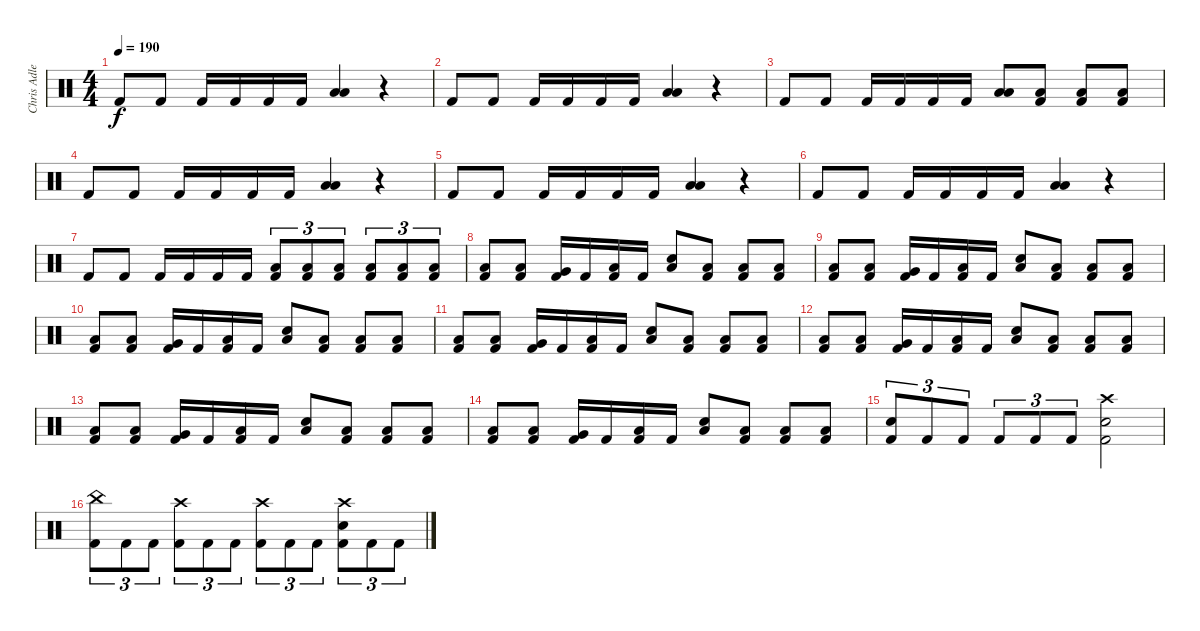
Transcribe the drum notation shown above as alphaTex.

\track ("Chris Adler" "Chris Adle") {instrument percussion}
\staff {score}
\articulation defaults
\ts (4 4)
\tempo 190
\clef neutral
\ks c "Kick (hit) 2".8{dy f} "Kick (hit) 2".8 "Kick (hit) 2".16 "Kick (hit) 2".16 "Kick (hit) 2".16 "Kick (hit) 2".16
("Low Tom (hit)" "Low Floor Tom (hit)").4 r.4 |
"Kick (hit) 2".8 "Kick (hit) 2".8 "Kick (hit) 2".16 "Kick (hit) 2".16 "Kick (hit) 2".16 "Kick (hit) 2".16 ("Low Tom (hit)" "Low Floor Tom (hit)").4 r.4 |
"Kick (hit) 2".8 "Kick (hit) 2".8 "Kick (hit) 2".16 "Kick (hit) 2".16 "Kick (hit) 2".16 "Kick (hit) 2".16 ("Low Tom (hit)" "Low Floor Tom (hit)").8 ("Low Floor Tom (hit)" "Kick (hit) 2").8 ("Low Floor Tom (hit)" "Kick (hit) 2").8 ("Low Floor Tom (hit)" "Kick (hit) 2").8 |
"Kick (hit) 2".8 "Kick (hit) 2".8 "Kick (hit) 2".16 "Kick (hit) 2".16 "Kick (hit) 2".16 "Kick (hit) 2".16 ("Low Tom (hit)" "Low Floor Tom (hit)").4 r.4 |
"Kick (hit) 2".8 "Kick (hit) 2".8 "Kick (hit) 2".16 "Kick (hit) 2".16 "Kick (hit) 2".16 "Kick (hit) 2".16 ("Low Tom (hit)" "Low Floor Tom (hit)").4 r.4 |
"Kick (hit) 2".8 "Kick (hit) 2".8 "Kick (hit) 2".16 "Kick (hit) 2".16 "Kick (hit) 2".16 "Kick (hit) 2".16 ("Low Tom (hit)" "Low Floor Tom (hit)").4 r.4 |
"Kick (hit) 2".8 "Kick (hit) 2".8 "Kick (hit) 2".16 "Kick (hit) 2".16 "Kick (hit) 2".16 "Kick (hit) 2".16 ("Low Floor Tom (hit)" "Kick (hit) 2").8{tu (3 2)} ("Low Floor Tom (hit)" "Kick (hit) 2").8{tu (3 2)} ("Low Floor Tom (hit)" "Kick (hit) 2").8{tu (3 2)} ("Low Tom (hit)" "Kick (hit) 2").8{tu (3 2)} ("Low Floor Tom (hit)" "Kick (hit) 2").8{tu (3 2)} ("Low Floor Tom (hit)" "Kick (hit) 2").8{tu (3 2)} |
("Low Floor Tom (hit)" "Kick (hit) 2").8 ("Low Tom (hit)" "Kick (hit) 2").8 ("Very Low Tom (hit)" "Kick (hit) 2").16 "Kick (hit) 2".16 ("Low Tom (hit)" "Kick (hit) 2").16 "Kick (hit) 2".16 ("Electric Snare (hit)" "Low Floor Tom (hit)").8 ("Low Tom (hit)" "Kick (hit) 2").8 ("Low Floor Tom (hit)" "Kick (hit) 2").8 ("Low Floor Tom (hit)" "Kick (hit) 2").8 |
("Low Floor Tom (hit)" "Kick (hit) 2").8 ("Low Tom (hit)" "Kick (hit) 2").8 ("Very Low Tom (hit)" "Kick (hit) 2").16 "Kick (hit) 2".16 ("Low Tom (hit)" "Kick (hit) 2").16 "Kick (hit) 2".16 ("Electric Snare (hit)" "Low Floor Tom (hit)").8 ("Low Tom (hit)" "Kick (hit) 2").8 ("Low Floor Tom (hit)" "Kick (hit) 2").8 ("Low Floor Tom (hit)" "Kick (hit) 2").8 |
("Low Floor Tom (hit)" "Kick (hit) 2").8 ("Low Tom (hit)" "Kick (hit) 2").8 ("Very Low Tom (hit)" "Kick (hit) 2").16 "Kick (hit) 2".16 ("Low Tom (hit)" "Kick (hit) 2").16 "Kick (hit) 2".16 ("Electric Snare (hit)" "Low Floor Tom (hit)").8 ("Low Tom (hit)" "Kick (hit) 2").8 ("Low Floor Tom (hit)" "Kick (hit) 2").8 ("Low Floor Tom (hit)" "Kick (hit) 2").8 |
("Low Floor Tom (hit)" "Kick (hit) 2").8 ("Low Tom (hit)" "Kick (hit) 2").8 ("Very Low Tom (hit)" "Kick (hit) 2").16 "Kick (hit) 2".16 ("Low Tom (hit)" "Kick (hit) 2").16 "Kick (hit) 2".16 ("Electric Snare (hit)" "Low Floor Tom (hit)").8 ("Low Tom (hit)" "Kick (hit) 2").8 ("Low Floor Tom (hit)" "Kick (hit) 2").8 ("Low Floor Tom (hit)" "Kick (hit) 2").8 |
("Low Floor Tom (hit)" "Kick (hit) 2").8 ("Low Tom (hit)" "Kick (hit) 2").8 ("Very Low Tom (hit)" "Kick (hit) 2").16 "Kick (hit) 2".16 ("Low Tom (hit)" "Kick (hit) 2").16 "Kick (hit) 2".16 ("Electric Snare (hit)" "Low Floor Tom (hit)").8 ("Low Tom (hit)" "Kick (hit) 2").8 ("Low Floor Tom (hit)" "Kick (hit) 2").8 ("Low Floor Tom (hit)" "Kick (hit) 2").8 |
("Low Floor Tom (hit)" "Kick (hit) 2").8 ("Low Tom (hit)" "Kick (hit) 2").8 ("Very Low Tom (hit)" "Kick (hit) 2").16 "Kick (hit) 2".16 ("Low Tom (hit)" "Kick (hit) 2").16 "Kick (hit) 2".16 ("Electric Snare (hit)" "Low Floor Tom (hit)").8 ("Low Tom (hit)" "Kick (hit) 2").8 ("Low Floor Tom (hit)" "Kick (hit) 2").8 ("Low Floor Tom (hit)" "Kick (hit) 2").8 |
("Low Floor Tom (hit)" "Kick (hit) 2").8 ("Low Tom (hit)" "Kick (hit) 2").8 ("Very Low Tom (hit)" "Kick (hit) 2").16 "Kick (hit) 2".16 ("Low Tom (hit)" "Kick (hit) 2").16 "Kick (hit) 2".16 ("Electric Snare (hit)" "Low Floor Tom (hit)").8 ("Low Tom (hit)" "Kick (hit) 2").8 ("Low Floor Tom (hit)" "Kick (hit) 2").8 ("Low Floor Tom (hit)" "Kick (hit) 2").8 |
("Electric Snare (hit)" "Kick (hit) 2").8{tu (3 2)} "Kick (hit) 2".8{tu (3 2)} "Kick (hit) 2".8{tu (3 2)} "Kick (hit) 2".8{tu (3 2)} "Kick (hit) 2".8{tu (3 2)} "Kick (hit) 2".8{tu (3 2)} ("Crash high (hit)" "Electric Snare (hit)" "Kick (hit) 2").2 |
("China (hit)" "Kick (hit) 2").8{tu (3 2)} "Kick (hit) 2".8{tu (3 2)} "Kick (hit) 2".8{tu (3 2)} ("Crash high (hit)" "Kick (hit) 2").8{tu (3 2)} "Kick (hit) 2".8{tu (3 2)} "Kick (hit) 2".8{tu (3 2)} ("Crash high (hit)" "Kick (hit) 2").8{tu (3 2)} "Kick (hit) 2".8{tu (3 2)} "Kick (hit) 2".8{tu (3 2)} ("Crash high (hit)" "Electric Snare (hit)" "Kick (hit) 2").8{tu (3 2)} "Kick (hit) 2".8{tu (3 2)} "Kick (hit) 2".8{tu (3 2)}
